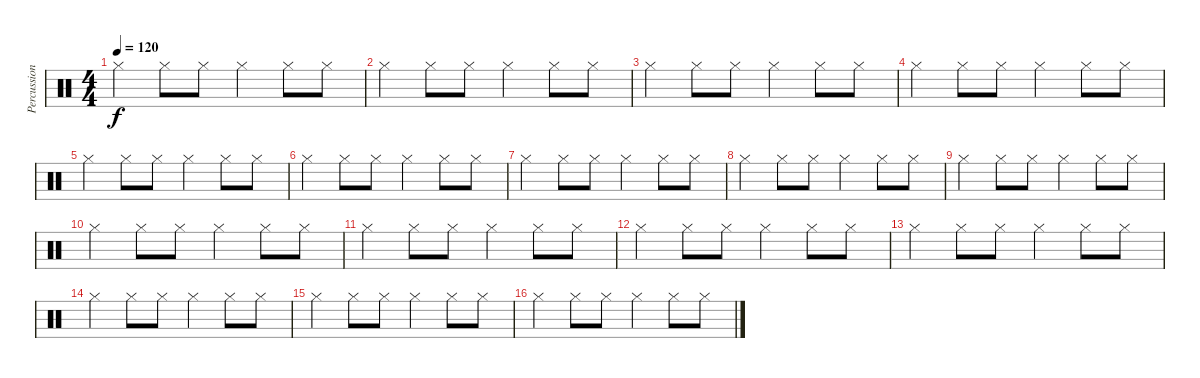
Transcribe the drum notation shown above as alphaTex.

\track ("Percussion" "Percussion") {instrument percussion}
\staff {score}
\articulation defaults
\ts (4 4)
\tempo 120
\clef neutral
\ks c "Hi-Hat (closed)".4{dy f} "Hi-Hat (closed)".8 "Hi-Hat (closed)".8 "Hi-Hat (closed)".4 "Hi-Hat (closed)".8 "Hi-Hat (closed)".8
|
"Hi-Hat (closed)".4 "Hi-Hat (closed)".8 "Hi-Hat (closed)".8 "Hi-Hat (closed)".4 "Hi-Hat (closed)".8 "Hi-Hat (closed)".8 |
"Hi-Hat (closed)".4 "Hi-Hat (closed)".8 "Hi-Hat (closed)".8 "Hi-Hat (closed)".4 "Hi-Hat (closed)".8 "Hi-Hat (closed)".8 |
"Hi-Hat (closed)".4 "Hi-Hat (closed)".8 "Hi-Hat (closed)".8 "Hi-Hat (closed)".4 "Hi-Hat (closed)".8 "Hi-Hat (closed)".8 |
"Hi-Hat (closed)".4 "Hi-Hat (closed)".8 "Hi-Hat (closed)".8 "Hi-Hat (closed)".4 "Hi-Hat (closed)".8 "Hi-Hat (closed)".8 |
"Hi-Hat (closed)".4 "Hi-Hat (closed)".8 "Hi-Hat (closed)".8 "Hi-Hat (closed)".4 "Hi-Hat (closed)".8 "Hi-Hat (closed)".8 |
"Hi-Hat (closed)".4 "Hi-Hat (closed)".8 "Hi-Hat (closed)".8 "Hi-Hat (closed)".4 "Hi-Hat (closed)".8 "Hi-Hat (closed)".8 |
"Hi-Hat (closed)".4 "Hi-Hat (closed)".8 "Hi-Hat (closed)".8 "Hi-Hat (closed)".4 "Hi-Hat (closed)".8 "Hi-Hat (closed)".8 |
"Hi-Hat (closed)".4 "Hi-Hat (closed)".8 "Hi-Hat (closed)".8 "Hi-Hat (closed)".4 "Hi-Hat (closed)".8 "Hi-Hat (closed)".8 |
"Hi-Hat (closed)".4 "Hi-Hat (closed)".8 "Hi-Hat (closed)".8 "Hi-Hat (closed)".4 "Hi-Hat (closed)".8 "Hi-Hat (closed)".8 |
"Hi-Hat (closed)".4 "Hi-Hat (closed)".8 "Hi-Hat (closed)".8 "Hi-Hat (closed)".4 "Hi-Hat (closed)".8 "Hi-Hat (closed)".8 |
"Hi-Hat (closed)".4 "Hi-Hat (closed)".8 "Hi-Hat (closed)".8 "Hi-Hat (closed)".4 "Hi-Hat (closed)".8 "Hi-Hat (closed)".8 |
"Hi-Hat (closed)".4 "Hi-Hat (closed)".8 "Hi-Hat (closed)".8 "Hi-Hat (closed)".4 "Hi-Hat (closed)".8 "Hi-Hat (closed)".8 |
"Hi-Hat (closed)".4 "Hi-Hat (closed)".8 "Hi-Hat (closed)".8 "Hi-Hat (closed)".4 "Hi-Hat (closed)".8 "Hi-Hat (closed)".8 |
"Hi-Hat (closed)".4 "Hi-Hat (closed)".8 "Hi-Hat (closed)".8 "Hi-Hat (closed)".4 "Hi-Hat (closed)".8 "Hi-Hat (closed)".8 |
"Hi-Hat (closed)".4 "Hi-Hat (closed)".8 "Hi-Hat (closed)".8 "Hi-Hat (closed)".4 "Hi-Hat (closed)".8 "Hi-Hat (closed)".8
